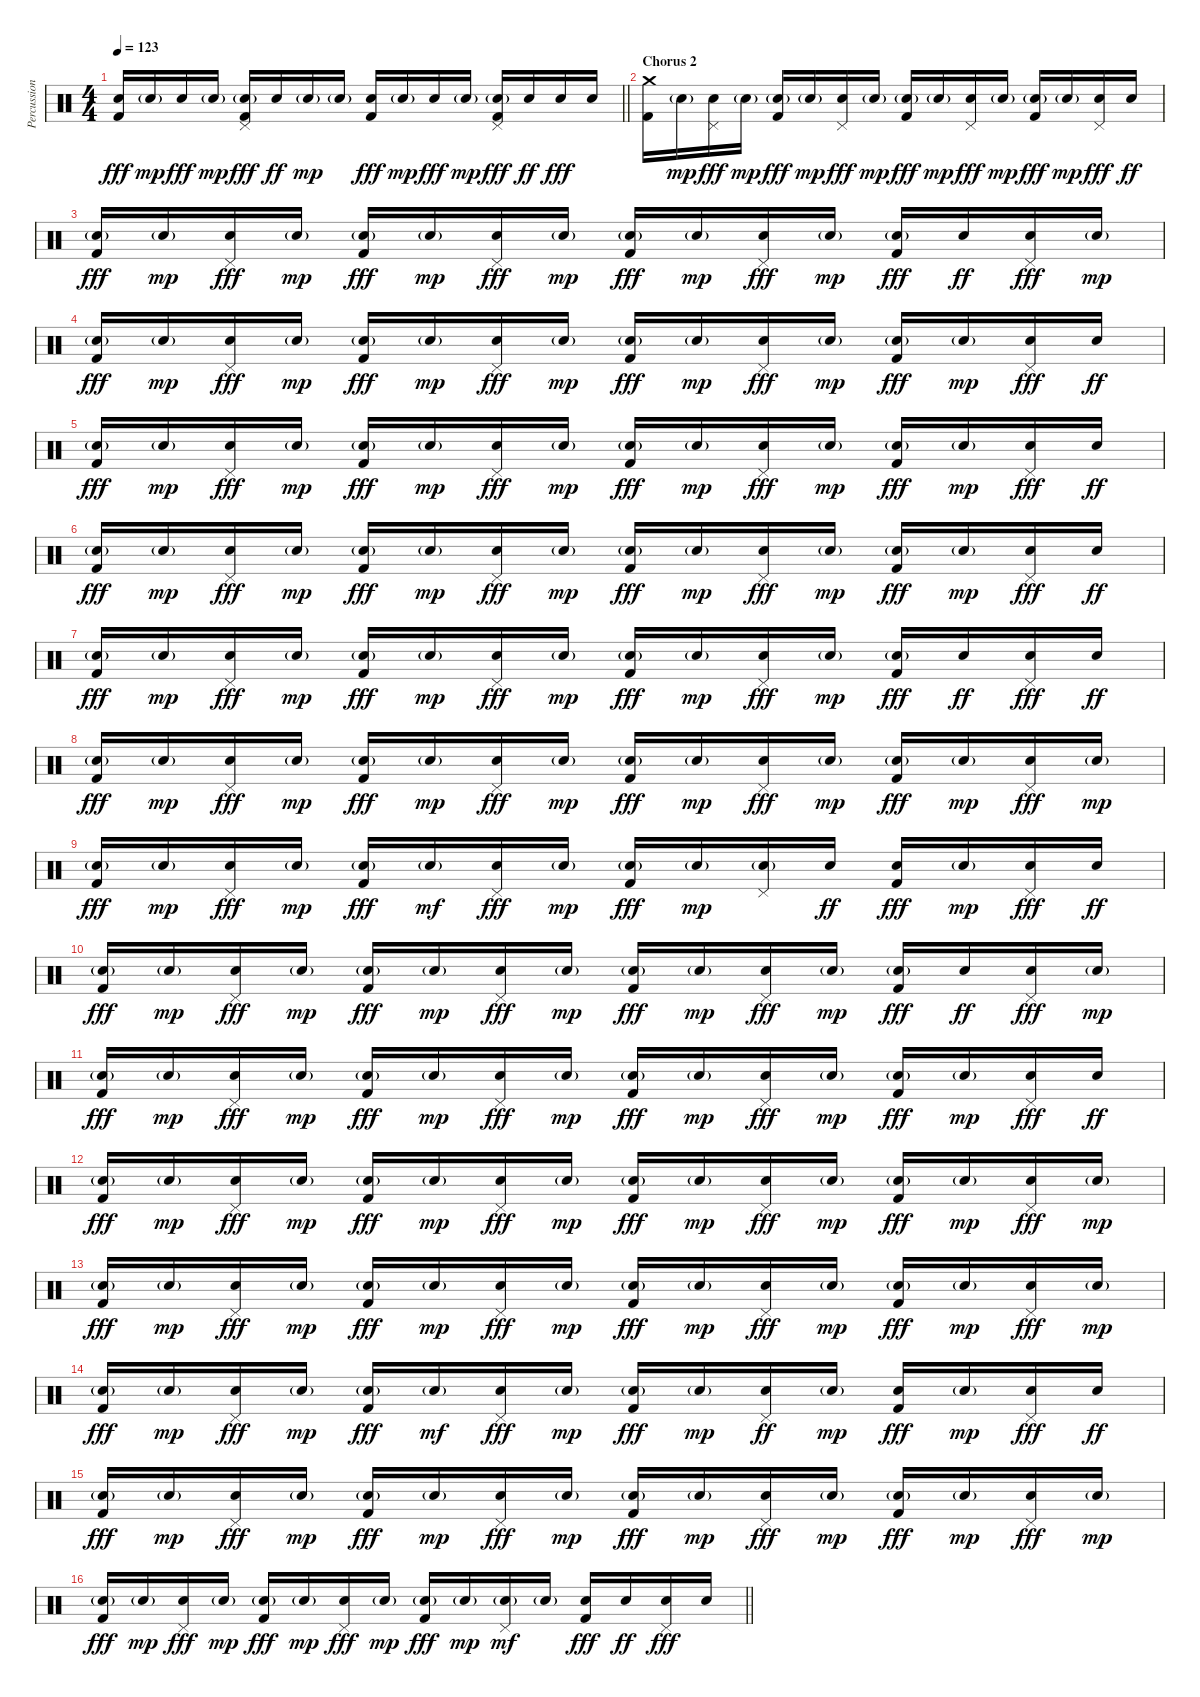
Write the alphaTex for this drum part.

\track ("Percussion" "Percussion") {instrument percussion}
\staff {score}
\articulation defaults
\ts (4 4)
\tempo 123
\clef neutral
\barLineRight lightlight
\ks c
("Electric Snare (hit)" "Kick (hit) 2").16{dy fff} "Electric Snare (hit)"{g}.16{dy mp} "Electric Snare (hit)".16{dy fff} "Electric Snare (hit)"{g}.16{dy mp} ("Pedal Hi-Hat (hit)" "Electric Snare (hit)"{g} "Kick (hit) 2").16{dy fff} "Electric Snare (hit)".16{dy ff} "Electric Snare (hit)"{g}.16{dy mp} "Electric Snare (hit)"{g}.16 ("Electric Snare (hit)" "Kick (hit) 2").16{dy fff} "Electric Snare (hit)"{g}.16{dy mp} "Electric Snare (hit)".16{dy fff} "Electric Snare (hit)"{g}.16{dy mp} ("Pedal Hi-Hat (hit)" "Electric Snare (hit)"{g} "Kick (hit) 2").16{dy fff} "Electric Snare (hit)".16{dy ff} "Electric Snare (hit)".16{dy fff} "Electric Snare (hit)".16 |
\section ("" "Chorus 2")
("Crash medium (hit)" "Kick (hit) 2").16 "Electric Snare (hit)"{g}.16{dy mp} ("Pedal Hi-Hat (hit)" "Electric Snare (hit)").16{dy fff} "Electric Snare (hit)"{g}.16{dy mp} ("Electric Snare (hit)"{g} "Kick (hit) 2").16{dy fff} "Electric Snare (hit)"{g}.16{dy mp} ("Pedal Hi-Hat (hit)" "Electric Snare (hit)").16{dy fff} "Electric Snare (hit)"{g}.16{dy mp} ("Electric Snare (hit)"{g} "Kick (hit) 2").16{dy fff} "Electric Snare (hit)"{g}.16{dy mp} ("Pedal Hi-Hat (hit)" "Electric Snare (hit)").16{dy fff} "Electric Snare (hit)"{g}.16{dy mp} ("Electric Snare (hit)"{g} "Kick (hit) 2").16{dy fff} "Electric Snare (hit)"{g}.16{dy mp} ("Pedal Hi-Hat (hit)" "Electric Snare (hit)").16{dy fff} "Electric Snare (hit)".16{dy ff} |
("Electric Snare (hit)"{g} "Kick (hit) 2").16{dy fff} "Electric Snare (hit)"{g}.16{dy mp} ("Pedal Hi-Hat (hit)" "Electric Snare (hit)").16{dy fff} "Electric Snare (hit)"{g}.16{dy mp} ("Electric Snare (hit)"{g} "Kick (hit) 2").16{dy fff} "Electric Snare (hit)"{g}.16{dy mp} ("Pedal Hi-Hat (hit)" "Electric Snare (hit)").16{dy fff} "Electric Snare (hit)"{g}.16{dy mp} ("Electric Snare (hit)"{g} "Kick (hit) 2").16{dy fff} "Electric Snare (hit)"{g}.16{dy mp} ("Pedal Hi-Hat (hit)" "Electric Snare (hit)").16{dy fff} "Electric Snare (hit)"{g}.16{dy mp} ("Electric Snare (hit)"{g} "Kick (hit) 2").16{dy fff} "Electric Snare (hit)".16{dy ff} ("Pedal Hi-Hat (hit)" "Electric Snare (hit)").16{dy fff} "Electric Snare (hit)"{g}.16{dy mp} |
("Electric Snare (hit)"{g} "Kick (hit) 2").16{dy fff} "Electric Snare (hit)"{g}.16{dy mp} ("Pedal Hi-Hat (hit)" "Electric Snare (hit)").16{dy fff} "Electric Snare (hit)"{g}.16{dy mp} ("Electric Snare (hit)"{g} "Kick (hit) 2").16{dy fff} "Electric Snare (hit)"{g}.16{dy mp} ("Pedal Hi-Hat (hit)" "Electric Snare (hit)").16{dy fff} "Electric Snare (hit)"{g}.16{dy mp} ("Electric Snare (hit)"{g} "Kick (hit) 2").16{dy fff} "Electric Snare (hit)"{g}.16{dy mp} ("Pedal Hi-Hat (hit)" "Electric Snare (hit)").16{dy fff} "Electric Snare (hit)"{g}.16{dy mp} ("Electric Snare (hit)"{g} "Kick (hit) 2").16{dy fff} "Electric Snare (hit)"{g}.16{dy mp} ("Pedal Hi-Hat (hit)" "Electric Snare (hit)").16{dy fff} "Electric Snare (hit)".16{dy ff} |
("Electric Snare (hit)"{g} "Kick (hit) 2").16{dy fff} "Electric Snare (hit)"{g}.16{dy mp} ("Pedal Hi-Hat (hit)" "Electric Snare (hit)").16{dy fff} "Electric Snare (hit)"{g}.16{dy mp} ("Electric Snare (hit)"{g} "Kick (hit) 2").16{dy fff} "Electric Snare (hit)"{g}.16{dy mp} ("Pedal Hi-Hat (hit)" "Electric Snare (hit)").16{dy fff} "Electric Snare (hit)"{g}.16{dy mp} ("Electric Snare (hit)"{g} "Kick (hit) 2").16{dy fff} "Electric Snare (hit)"{g}.16{dy mp} ("Pedal Hi-Hat (hit)" "Electric Snare (hit)").16{dy fff} "Electric Snare (hit)"{g}.16{dy mp} ("Electric Snare (hit)"{g} "Kick (hit) 2").16{dy fff} "Electric Snare (hit)"{g}.16{dy mp} ("Pedal Hi-Hat (hit)" "Electric Snare (hit)").16{dy fff} "Electric Snare (hit)".16{dy ff} |
("Electric Snare (hit)"{g} "Kick (hit) 2").16{dy fff} "Electric Snare (hit)"{g}.16{dy mp} ("Pedal Hi-Hat (hit)" "Electric Snare (hit)").16{dy fff} "Electric Snare (hit)"{g}.16{dy mp} ("Electric Snare (hit)"{g} "Kick (hit) 2").16{dy fff} "Electric Snare (hit)"{g}.16{dy mp} ("Pedal Hi-Hat (hit)" "Electric Snare (hit)").16{dy fff} "Electric Snare (hit)"{g}.16{dy mp} ("Electric Snare (hit)"{g} "Kick (hit) 2").16{dy fff} "Electric Snare (hit)"{g}.16{dy mp} ("Pedal Hi-Hat (hit)" "Electric Snare (hit)").16{dy fff} "Electric Snare (hit)"{g}.16{dy mp} ("Electric Snare (hit)"{g} "Kick (hit) 2").16{dy fff} "Electric Snare (hit)"{g}.16{dy mp} ("Pedal Hi-Hat (hit)" "Electric Snare (hit)").16{dy fff} "Electric Snare (hit)".16{dy ff} |
("Electric Snare (hit)"{g} "Kick (hit) 2").16{dy fff} "Electric Snare (hit)"{g}.16{dy mp} ("Pedal Hi-Hat (hit)" "Electric Snare (hit)").16{dy fff} "Electric Snare (hit)"{g}.16{dy mp} ("Electric Snare (hit)"{g} "Kick (hit) 2").16{dy fff} "Electric Snare (hit)"{g}.16{dy mp} ("Pedal Hi-Hat (hit)" "Electric Snare (hit)").16{dy fff} "Electric Snare (hit)"{g}.16{dy mp} ("Electric Snare (hit)"{g} "Kick (hit) 2").16{dy fff} "Electric Snare (hit)"{g}.16{dy mp} ("Pedal Hi-Hat (hit)" "Electric Snare (hit)").16{dy fff} "Electric Snare (hit)"{g}.16{dy mp} ("Electric Snare (hit)"{g} "Kick (hit) 2").16{dy fff} "Electric Snare (hit)".16{dy ff} ("Pedal Hi-Hat (hit)" "Electric Snare (hit)").16{dy fff} "Electric Snare (hit)".16{dy ff} |
("Electric Snare (hit)"{g} "Kick (hit) 2").16{dy fff} "Electric Snare (hit)"{g}.16{dy mp} ("Pedal Hi-Hat (hit)" "Electric Snare (hit)").16{dy fff} "Electric Snare (hit)"{g}.16{dy mp} ("Electric Snare (hit)"{g} "Kick (hit) 2").16{dy fff} "Electric Snare (hit)"{g}.16{dy mp} ("Pedal Hi-Hat (hit)" "Electric Snare (hit)").16{dy fff} "Electric Snare (hit)"{g}.16{dy mp} ("Electric Snare (hit)"{g} "Kick (hit) 2").16{dy fff} "Electric Snare (hit)"{g}.16{dy mp} ("Pedal Hi-Hat (hit)" "Electric Snare (hit)").16{dy fff} "Electric Snare (hit)"{g}.16{dy mp} ("Electric Snare (hit)"{g} "Kick (hit) 2").16{dy fff} "Electric Snare (hit)"{g}.16{dy mp} ("Pedal Hi-Hat (hit)" "Electric Snare (hit)").16{dy fff} "Electric Snare (hit)"{g}.16{dy mp} |
("Electric Snare (hit)"{g} "Kick (hit) 2").16{dy fff} "Electric Snare (hit)"{g}.16{dy mp} ("Pedal Hi-Hat (hit)" "Electric Snare (hit)").16{dy fff} "Electric Snare (hit)"{g}.16{dy mp} ("Electric Snare (hit)"{g} "Kick (hit) 2").16{dy fff} "Electric Snare (hit)"{g}.16{dy mf} ("Pedal Hi-Hat (hit)" "Electric Snare (hit)").16{dy fff} "Electric Snare (hit)"{g}.16{dy mp} ("Electric Snare (hit)"{g} "Kick (hit) 2").16{dy fff} "Electric Snare (hit)"{g}.16{dy mp} ("Pedal Hi-Hat (hit)" "Electric Snare (hit)"{g}).16 "Electric Snare (hit)".16{dy ff} ("Electric Snare (hit)" "Kick (hit) 2").16{dy fff} "Electric Snare (hit)"{g}.16{dy mp} ("Pedal Hi-Hat (hit)" "Electric Snare (hit)").16{dy fff} "Electric Snare (hit)".16{dy ff} |
("Electric Snare (hit)"{g} "Kick (hit) 2").16{dy fff} "Electric Snare (hit)"{g}.16{dy mp} ("Pedal Hi-Hat (hit)" "Electric Snare (hit)").16{dy fff} "Electric Snare (hit)"{g}.16{dy mp} ("Electric Snare (hit)"{g} "Kick (hit) 2").16{dy fff} "Electric Snare (hit)"{g}.16{dy mp} ("Pedal Hi-Hat (hit)" "Electric Snare (hit)").16{dy fff} "Electric Snare (hit)"{g}.16{dy mp} ("Electric Snare (hit)"{g} "Kick (hit) 2").16{dy fff} "Electric Snare (hit)"{g}.16{dy mp} ("Pedal Hi-Hat (hit)" "Electric Snare (hit)").16{dy fff} "Electric Snare (hit)"{g}.16{dy mp} ("Electric Snare (hit)"{g} "Kick (hit) 2").16{dy fff} "Electric Snare (hit)".16{dy ff} ("Pedal Hi-Hat (hit)" "Electric Snare (hit)").16{dy fff} "Electric Snare (hit)"{g}.16{dy mp} |
("Electric Snare (hit)"{g} "Kick (hit) 2").16{dy fff} "Electric Snare (hit)"{g}.16{dy mp} ("Pedal Hi-Hat (hit)" "Electric Snare (hit)").16{dy fff} "Electric Snare (hit)"{g}.16{dy mp} ("Electric Snare (hit)"{g} "Kick (hit) 2").16{dy fff} "Electric Snare (hit)"{g}.16{dy mp} ("Pedal Hi-Hat (hit)" "Electric Snare (hit)").16{dy fff} "Electric Snare (hit)"{g}.16{dy mp} ("Electric Snare (hit)"{g} "Kick (hit) 2").16{dy fff} "Electric Snare (hit)"{g}.16{dy mp} ("Pedal Hi-Hat (hit)" "Electric Snare (hit)").16{dy fff} "Electric Snare (hit)"{g}.16{dy mp} ("Electric Snare (hit)"{g} "Kick (hit) 2").16{dy fff} "Electric Snare (hit)"{g}.16{dy mp} ("Pedal Hi-Hat (hit)" "Electric Snare (hit)").16{dy fff} "Electric Snare (hit)".16{dy ff} |
("Electric Snare (hit)"{g} "Kick (hit) 2").16{dy fff} "Electric Snare (hit)"{g}.16{dy mp} ("Pedal Hi-Hat (hit)" "Electric Snare (hit)").16{dy fff} "Electric Snare (hit)"{g}.16{dy mp} ("Electric Snare (hit)"{g} "Kick (hit) 2").16{dy fff} "Electric Snare (hit)"{g}.16{dy mp} ("Pedal Hi-Hat (hit)" "Electric Snare (hit)").16{dy fff} "Electric Snare (hit)"{g}.16{dy mp} ("Electric Snare (hit)"{g} "Kick (hit) 2").16{dy fff} "Electric Snare (hit)"{g}.16{dy mp} ("Pedal Hi-Hat (hit)" "Electric Snare (hit)").16{dy fff} "Electric Snare (hit)"{g}.16{dy mp} ("Electric Snare (hit)"{g} "Kick (hit) 2").16{dy fff} "Electric Snare (hit)"{g}.16{dy mp} ("Pedal Hi-Hat (hit)" "Electric Snare (hit)").16{dy fff} "Electric Snare (hit)"{g}.16{dy mp} |
("Electric Snare (hit)"{g} "Kick (hit) 2").16{dy fff} "Electric Snare (hit)"{g}.16{dy mp} ("Pedal Hi-Hat (hit)" "Electric Snare (hit)").16{dy fff} "Electric Snare (hit)"{g}.16{dy mp} ("Electric Snare (hit)"{g} "Kick (hit) 2").16{dy fff} "Electric Snare (hit)"{g}.16{dy mp} ("Pedal Hi-Hat (hit)" "Electric Snare (hit)").16{dy fff} "Electric Snare (hit)"{g}.16{dy mp} ("Electric Snare (hit)"{g} "Kick (hit) 2").16{dy fff} "Electric Snare (hit)"{g}.16{dy mp} ("Pedal Hi-Hat (hit)" "Electric Snare (hit)").16{dy fff} "Electric Snare (hit)"{g}.16{dy mp} ("Electric Snare (hit)"{g} "Kick (hit) 2").16{dy fff} "Electric Snare (hit)"{g}.16{dy mp} ("Pedal Hi-Hat (hit)" "Electric Snare (hit)").16{dy fff} "Electric Snare (hit)"{g}.16{dy mp} |
("Electric Snare (hit)"{g} "Kick (hit) 2").16{dy fff} "Electric Snare (hit)"{g}.16{dy mp} ("Pedal Hi-Hat (hit)" "Electric Snare (hit)").16{dy fff} "Electric Snare (hit)"{g}.16{dy mp} ("Electric Snare (hit)"{g} "Kick (hit) 2").16{dy fff} "Electric Snare (hit)"{g}.16{dy mf} ("Pedal Hi-Hat (hit)" "Electric Snare (hit)").16{dy fff} "Electric Snare (hit)"{g}.16{dy mp} ("Electric Snare (hit)"{g} "Kick (hit) 2").16{dy fff} "Electric Snare (hit)"{g}.16{dy mp} ("Pedal Hi-Hat (hit)" "Electric Snare (hit)").16{dy ff} "Electric Snare (hit)"{g}.16{dy mp} ("Electric Snare (hit)" "Kick (hit) 2").16{dy fff} "Electric Snare (hit)"{g}.16{dy mp} ("Pedal Hi-Hat (hit)" "Electric Snare (hit)").16{dy fff} "Electric Snare (hit)".16{dy ff} |
("Electric Snare (hit)"{g} "Kick (hit) 2").16{dy fff} "Electric Snare (hit)"{g}.16{dy mp} ("Pedal Hi-Hat (hit)" "Electric Snare (hit)").16{dy fff} "Electric Snare (hit)"{g}.16{dy mp} ("Electric Snare (hit)"{g} "Kick (hit) 2").16{dy fff} "Electric Snare (hit)"{g}.16{dy mp} ("Pedal Hi-Hat (hit)" "Electric Snare (hit)").16{dy fff} "Electric Snare (hit)"{g}.16{dy mp} ("Electric Snare (hit)"{g} "Kick (hit) 2").16{dy fff} "Electric Snare (hit)"{g}.16{dy mp} ("Pedal Hi-Hat (hit)" "Electric Snare (hit)").16{dy fff} "Electric Snare (hit)"{g}.16{dy mp} ("Electric Snare (hit)"{g} "Kick (hit) 2").16{dy fff} "Electric Snare (hit)"{g}.16{dy mp} ("Pedal Hi-Hat (hit)" "Electric Snare (hit)").16{dy fff} "Electric Snare (hit)"{g}.16{dy mp} |
\barLineRight lightlight
("Electric Snare (hit)"{g} "Kick (hit) 2").16{dy fff} "Electric Snare (hit)"{g}.16{dy mp} ("Pedal Hi-Hat (hit)" "Electric Snare (hit)").16{dy fff} "Electric Snare (hit)"{g}.16{dy mp} ("Electric Snare (hit)"{g} "Kick (hit) 2").16{dy fff} "Electric Snare (hit)"{g}.16{dy mp} ("Pedal Hi-Hat (hit)" "Electric Snare (hit)").16{dy fff} "Electric Snare (hit)"{g}.16{dy mp} ("Electric Snare (hit)"{g} "Kick (hit) 2").16{dy fff} "Electric Snare (hit)"{g}.16{dy mp} ("Pedal Hi-Hat (hit)" "Electric Snare (hit)"{g}).16{dy mf} "Electric Snare (hit)"{g}.16 ("Electric Snare (hit)" "Kick (hit) 2").16{dy fff} "Electric Snare (hit)".16{dy ff} ("Pedal Hi-Hat (hit)" "Electric Snare (hit)").16{dy fff} "Electric Snare (hit)".16
